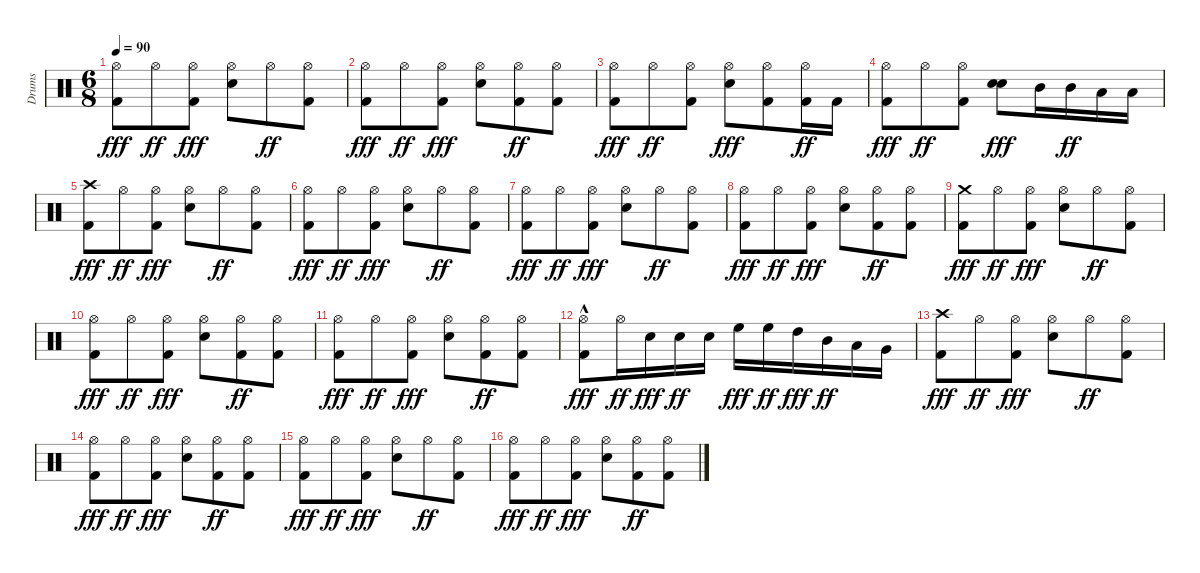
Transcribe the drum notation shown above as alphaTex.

\track ("Drums" "Drums") {instrument percussion}
\staff {score}
\articulation defaults
\ts (6 8)
\tempo 90
\clef neutral
\ks c
("Hi-Hat (open)" "Kick (hit) 2").8{dy fff} "Hi-Hat (open)".8{dy ff} ("Hi-Hat (open)" "Kick (hit) 2").8{dy fff} ("Hi-Hat (open)" "Snare (hit) 2").8 "Hi-Hat (open)".8{dy ff} ("Hi-Hat (open)" "Kick (hit) 2").8 |
("Hi-Hat (open)" "Kick (hit) 2").8{dy fff} "Hi-Hat (open)".8{dy ff} ("Hi-Hat (open)" "Kick (hit) 2").8{dy fff} ("Hi-Hat (open)" "Snare (hit) 2").8 ("Hi-Hat (open)" "Kick (hit) 2").8{dy ff} ("Hi-Hat (open)" "Kick (hit) 2").8 |
("Hi-Hat (open)" "Kick (hit) 2").8{dy fff} "Hi-Hat (open)".8{dy ff} ("Hi-Hat (open)" "Kick (hit) 2").8 ("Hi-Hat (open)" "Snare (hit) 2").8{dy fff} ("Hi-Hat (open)" "Kick (hit) 2").8 ("Hi-Hat (open)" "Kick (hit) 2").16{dy ff} "Kick (hit) 2".16 |
("Hi-Hat (open)" "Kick (hit) 2").8{dy fff} "Hi-Hat (open)".8{dy ff} ("Hi-Hat (open)" "Kick (hit) 2").8 ("Snare (hit) 2" "Snare (hit) 2").8{dy fff} "Mid Tom (hit)".16 "Mid Tom (hit)".16{dy ff} "Low Tom (hit)".16 "Low Tom (hit)".16 |
("Kick (hit) 2" "Crash high (hit)").8{dy fff} "Hi-Hat (open)".8{dy ff} ("Hi-Hat (open)" "Kick (hit) 2").8{dy fff} ("Hi-Hat (open)" "Snare (hit) 2").8 "Hi-Hat (open)".8{dy ff} ("Hi-Hat (open)" "Kick (hit) 2").8 |
("Hi-Hat (open)" "Kick (hit) 2").8{dy fff} "Hi-Hat (open)".8{dy ff} ("Hi-Hat (open)" "Kick (hit) 2").8{dy fff} ("Hi-Hat (open)" "Snare (hit) 2").8 "Hi-Hat (open)".8{dy ff} ("Hi-Hat (open)" "Kick (hit) 2").8 |
("Hi-Hat (open)" "Kick (hit) 2").8{dy fff} "Hi-Hat (open)".8{dy ff} ("Hi-Hat (open)" "Kick (hit) 2").8{dy fff} ("Hi-Hat (open)" "Snare (hit) 2").8 "Hi-Hat (open)".8{dy ff} ("Hi-Hat (open)" "Kick (hit) 2").8 |
("Hi-Hat (open)" "Kick (hit) 2").8{dy fff} "Hi-Hat (open)".8{dy ff} ("Hi-Hat (open)" "Kick (hit) 2").8{dy fff} ("Hi-Hat (open)" "Snare (hit) 2").8 ("Hi-Hat (open)" "Kick (hit) 2").8{dy ff} ("Hi-Hat (open)" "Kick (hit) 2").8 |
("Kick (hit) 2" "Crash medium (hit)").8{dy fff} "Hi-Hat (open)".8{dy ff} ("Hi-Hat (open)" "Kick (hit) 2").8{dy fff} ("Hi-Hat (open)" "Snare (hit) 2").8 "Hi-Hat (open)".8{dy ff} ("Hi-Hat (open)" "Kick (hit) 2").8 |
("Hi-Hat (open)" "Kick (hit) 2").8{dy fff} "Hi-Hat (open)".8{dy ff} ("Hi-Hat (open)" "Kick (hit) 2").8{dy fff} ("Hi-Hat (open)" "Snare (hit) 2").8 ("Hi-Hat (open)" "Kick (hit) 2").8{dy ff} ("Hi-Hat (open)" "Kick (hit) 2").8 |
("Hi-Hat (open)" "Kick (hit) 2").8{dy fff} "Hi-Hat (open)".8{dy ff} ("Hi-Hat (open)" "Kick (hit) 2").8{dy fff} ("Hi-Hat (open)" "Snare (hit) 2").8 ("Hi-Hat (open)" "Kick (hit) 2").8{dy ff} ("Hi-Hat (open)" "Kick (hit) 2").8 |
("Hi-Hat (open)" "Kick (hit) 2"{hac}).8{dy fff} "Hi-Hat (open)".16{dy ff} "Snare (hit) 2".16{dy fff} "Snare (hit) 2".16{dy ff} "Snare (hit) 2".16 "High Floor Tom (hit)".16{dy fff} "High Floor Tom (hit)".16{dy ff} "High Tom (hit)".16{dy fff} "Mid Tom (hit)".16{dy ff} "Low Tom (hit)".16 "Very Low Tom (hit)".16 |
("Kick (hit) 2" "Crash high (hit)").8{dy fff} "Hi-Hat (open)".8{dy ff} ("Hi-Hat (open)" "Kick (hit) 2").8{dy fff} ("Hi-Hat (open)" "Snare (hit) 2").8 "Hi-Hat (open)".8{dy ff} ("Hi-Hat (open)" "Kick (hit) 2").8 |
("Hi-Hat (open)" "Kick (hit) 2").8{dy fff} "Hi-Hat (open)".8{dy ff} ("Hi-Hat (open)" "Kick (hit) 2").8{dy fff} ("Hi-Hat (open)" "Snare (hit) 2").8 ("Hi-Hat (open)" "Kick (hit) 2").8{dy ff} ("Hi-Hat (open)" "Kick (hit) 2").8 |
("Hi-Hat (open)" "Kick (hit) 2").8{dy fff} "Hi-Hat (open)".8{dy ff} ("Hi-Hat (open)" "Kick (hit) 2").8{dy fff} ("Hi-Hat (open)" "Snare (hit) 2").8 "Hi-Hat (open)".8{dy ff} ("Hi-Hat (open)" "Kick (hit) 2").8 |
("Hi-Hat (open)" "Kick (hit) 2").8{dy fff} "Hi-Hat (open)".8{dy ff} ("Hi-Hat (open)" "Kick (hit) 2").8{dy fff} ("Hi-Hat (open)" "Snare (hit) 2").8 ("Hi-Hat (open)" "Kick (hit) 2").8{dy ff} ("Hi-Hat (open)" "Kick (hit) 2").8
